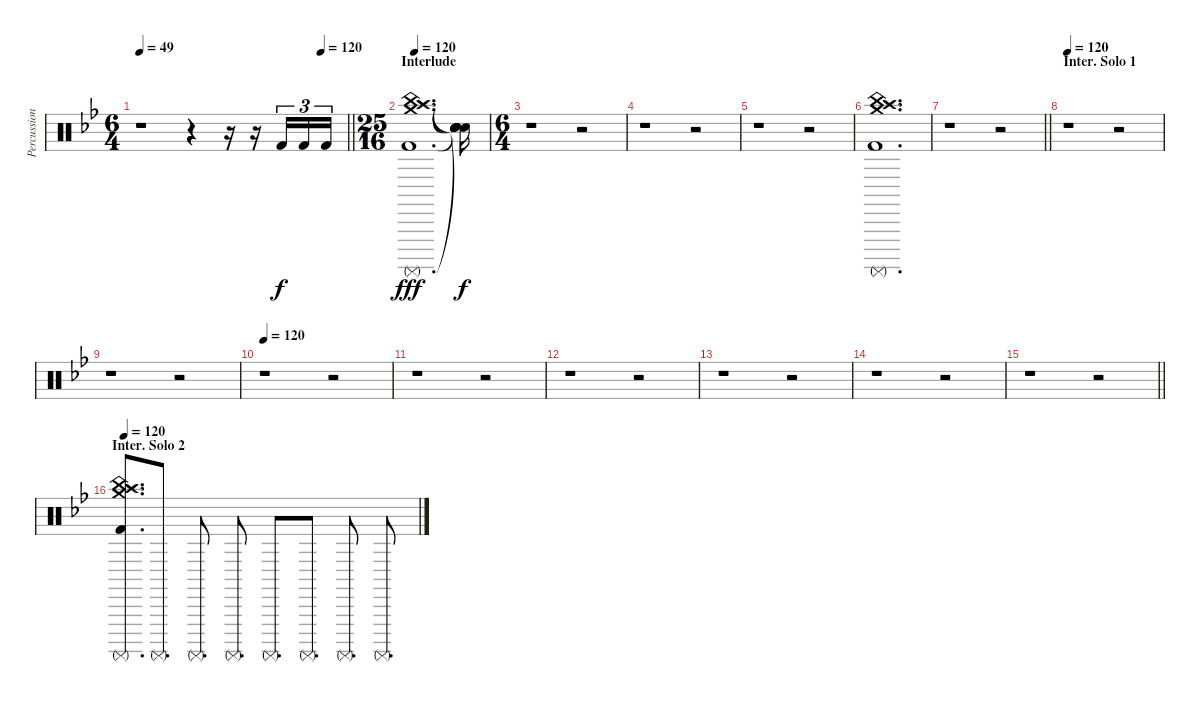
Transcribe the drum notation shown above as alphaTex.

\track ("Percussion" "Percussion") {instrument percussion}
\staff {score}
\articulation defaults
\ts (6 4)
\tempo 49
\tempo (120 0.875)
\clef neutral
\barLineRight lightlight
\ks bb
r.1{dy ppp} r.4 r.16 r.16 "Kick (hit) 2".16{tu (3 2) dy f} "Kick (hit) 2".16{tu (3 2)} "Kick (hit) 2".16{tu (3 2)} |
\ts (25 16)
\section ("" "Interlude")
\tempo 120
("Crash high (hit)" "Crash medium (hit)" "Splash (hit)" "China (hit)" "Surdo (mute)" "Kick (hit) 2").1{d dy fff} ("Snare (hit)"{t} "Snare (hit)"{t} "Snare (hit)"{t} "Snare (hit)"{t} "Snare (hit)"{t} "Snare (hit)"{t}).16{dy f} |
\ts (6 4)
r.1 r.2 |
r.1 r.2 |
r.1 r.2 |
("Crash high (hit)" "Crash medium (hit)" "Splash (hit)" "China (hit)" "Surdo (mute)" "Kick (hit) 2").1{d} |
\barLineRight lightlight
r.1 r.2 |
\section ("" "Inter. Solo 1")
\tempo 120
r.1 r.2 |
r.1 r.2 |
\tempo 120
r.1 r.2 |
r.1 r.2 |
r.1 r.2 |
r.1 r.2 |
r.1 r.2 |
\barLineRight lightlight
r.1 r.2 |
\section ("" "Inter. Solo 2")
\tempo 120
("Crash high (hit)" "Crash medium (hit)" "Splash (hit)" "China (hit)" "Surdo (mute)" "Kick (hit) 2").8{d} "Surdo (mute)".8{d} "Surdo (mute)".8{d} "Surdo (mute)".8{d} "Surdo (mute)".8{d} "Surdo (mute)".8{d} "Surdo (mute)".8{d} "Surdo (mute)".8{d}
